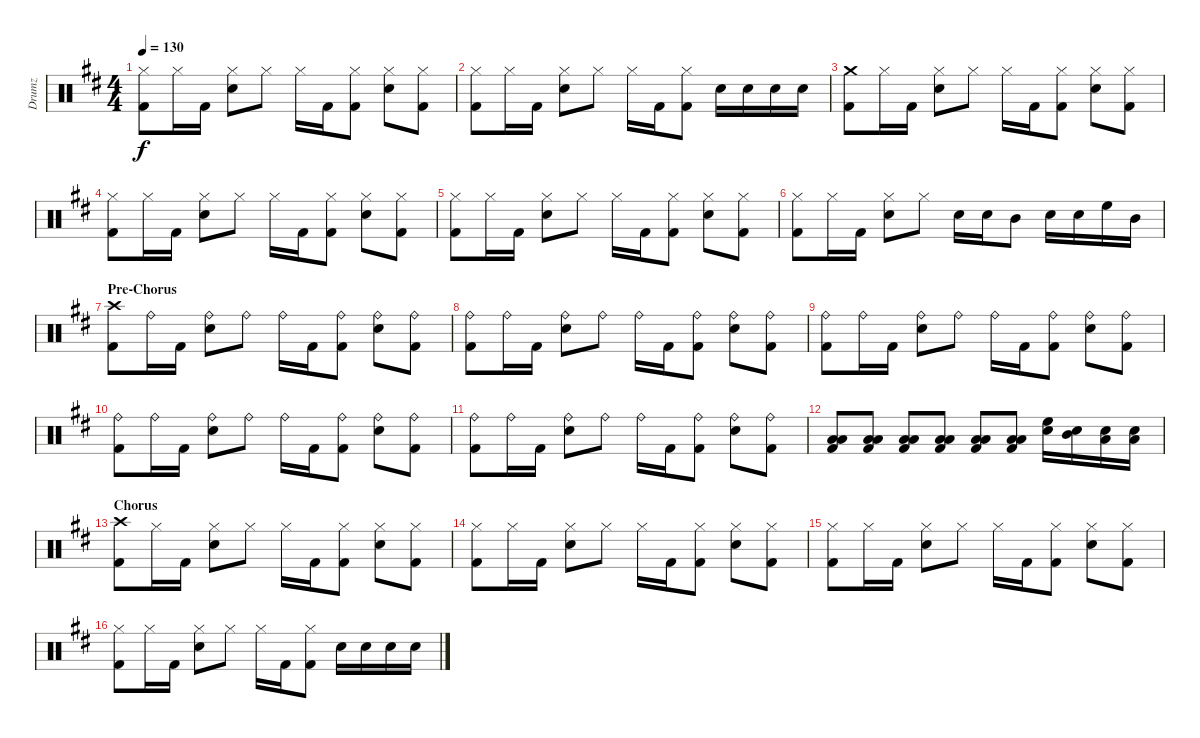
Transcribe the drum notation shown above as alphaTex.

\track ("Drumz" "Drumz") {instrument percussion}
\staff {score}
\articulation defaults
\ts (4 4)
\tempo 130
\clef neutral
\ks d
("Hi-Hat (closed)" "Kick (hit) 2").8{dy f} "Hi-Hat (closed)".16 "Kick (hit) 2".16 ("Hi-Hat (closed)" "Snare (hit) 2").8 "Hi-Hat (closed)".8 "Hi-Hat (closed)".16 "Kick (hit) 2".16 ("Hi-Hat (closed)" "Kick (hit) 2").8 ("Hi-Hat (closed)" "Snare (hit) 2").8 ("Hi-Hat (closed)" "Kick (hit) 2").8 |
("Hi-Hat (closed)" "Kick (hit) 2").8 "Hi-Hat (closed)".16 "Kick (hit) 2".16 ("Hi-Hat (closed)" "Snare (hit) 2").8 "Hi-Hat (closed)".8 "Hi-Hat (closed)".16 "Kick (hit) 2".16 ("Hi-Hat (closed)" "Kick (hit) 2").8 "Snare (hit) 2".16 "Snare (hit) 2".16 "Snare (hit) 2".16 "Snare (hit) 2".16 |
("Crash medium (hit)" "Kick (hit) 2").8 "Hi-Hat (closed)".16 "Kick (hit) 2".16 ("Hi-Hat (closed)" "Snare (hit) 2").8 "Hi-Hat (closed)".8 "Hi-Hat (closed)".16 "Kick (hit) 2".16 ("Hi-Hat (closed)" "Kick (hit) 2").8 ("Hi-Hat (closed)" "Snare (hit) 2").8 ("Hi-Hat (closed)" "Kick (hit) 2").8 |
("Hi-Hat (closed)" "Kick (hit) 2").8 "Hi-Hat (closed)".16 "Kick (hit) 2".16 ("Hi-Hat (closed)" "Snare (hit) 2").8 "Hi-Hat (closed)".8 "Hi-Hat (closed)".16 "Kick (hit) 2".16 ("Hi-Hat (closed)" "Kick (hit) 2").8 ("Hi-Hat (closed)" "Snare (hit) 2").8 ("Hi-Hat (closed)" "Kick (hit) 2").8 |
("Hi-Hat (closed)" "Kick (hit) 2").8 "Hi-Hat (closed)".16 "Kick (hit) 2".16 ("Hi-Hat (closed)" "Snare (hit) 2").8 "Hi-Hat (closed)".8 "Hi-Hat (closed)".16 "Kick (hit) 2".16 ("Hi-Hat (closed)" "Kick (hit) 2").8 ("Hi-Hat (closed)" "Snare (hit) 2").8 ("Hi-Hat (closed)" "Kick (hit) 2").8 |
("Hi-Hat (closed)" "Kick (hit) 2").8 "Hi-Hat (closed)".16 "Kick (hit) 2".16 ("Hi-Hat (closed)" "Snare (hit) 2").8 "Hi-Hat (closed)".8 "Snare (hit) 2".16 "Snare (hit) 2".16 "Mid Tom (hit)".8 "Snare (hit) 2".16 "Snare (hit) 2".16 "High Floor Tom (hit)".16 "Mid Tom (hit)".16 |
\section ("" "Pre-Chorus")
("Crash high (hit)" "Kick (hit) 2").8 "Ride (bell)".16 "Kick (hit) 2".16 ("Ride (bell)" "Snare (hit) 2").8 "Ride (bell)".8 "Ride (bell)".16 "Kick (hit) 2".16 ("Ride (bell)" "Kick (hit) 2").8 ("Ride (bell)" "Snare (hit) 2").8 ("Ride (bell)" "Kick (hit) 2").8 |
("Ride (bell)" "Kick (hit) 2").8 "Ride (bell)".16 "Kick (hit) 2".16 ("Ride (bell)" "Snare (hit) 2").8 "Ride (bell)".8 "Ride (bell)".16 "Kick (hit) 2".16 ("Ride (bell)" "Kick (hit) 2").8 ("Ride (bell)" "Snare (hit) 2").8 ("Ride (bell)" "Kick (hit) 2").8 |
("Ride (bell)" "Kick (hit) 2").8 "Ride (bell)".16 "Kick (hit) 2".16 ("Ride (bell)" "Snare (hit) 2").8 "Ride (bell)".8 "Ride (bell)".16 "Kick (hit) 2".16 ("Ride (bell)" "Kick (hit) 2").8 ("Ride (bell)" "Snare (hit) 2").8 ("Ride (bell)" "Kick (hit) 2").8 |
("Ride (bell)" "Kick (hit) 2").8 "Ride (bell)".16 "Kick (hit) 2".16 ("Ride (bell)" "Snare (hit) 2").8 "Ride (bell)".8 "Ride (bell)".16 "Kick (hit) 2".16 ("Ride (bell)" "Kick (hit) 2").8 ("Ride (bell)" "Snare (hit) 2").8 ("Ride (bell)" "Kick (hit) 2").8 |
("Ride (bell)" "Kick (hit) 2").8 "Ride (bell)".16 "Kick (hit) 2".16 ("Ride (bell)" "Snare (hit) 2").8 "Ride (bell)".8 "Ride (bell)".16 "Kick (hit) 2".16 ("Ride (bell)" "Kick (hit) 2").8 ("Ride (bell)" "Snare (hit) 2").8 ("Ride (bell)" "Kick (hit) 2").8 |
("Low Tom (hit)" "Low Floor Tom (hit)" "Kick (hit) 2").8 ("Low Tom (hit)" "Low Floor Tom (hit)" "Kick (hit) 2").8 ("Low Tom (hit)" "Low Floor Tom (hit)" "Kick (hit) 2").8 ("Low Tom (hit)" "Low Floor Tom (hit)" "Kick (hit) 2").8 ("Low Tom (hit)" "Low Floor Tom (hit)" "Kick (hit) 2").8 ("Low Tom (hit)" "Low Floor Tom (hit)" "Kick (hit) 2").8 ("Snare (hit) 2" "High Floor Tom (hit)").16 ("Snare (hit) 2" "Mid Tom (hit)").16 ("Snare (hit) 2" "Low Tom (hit)").16 ("Snare (hit) 2" "Low Floor Tom (hit)").16 |
\section ("" "Chorus")
("Crash high (hit)" "Kick (hit) 2").8 "Hi-Hat (closed)".16 "Kick (hit) 2".16 ("Hi-Hat (closed)" "Snare (hit) 2").8 "Hi-Hat (closed)".8 "Hi-Hat (closed)".16 "Kick (hit) 2".16 ("Hi-Hat (closed)" "Kick (hit) 2").8 ("Hi-Hat (closed)" "Snare (hit) 2").8 ("Hi-Hat (closed)" "Kick (hit) 2").8 |
("Hi-Hat (closed)" "Kick (hit) 2").8 "Hi-Hat (closed)".16 "Kick (hit) 2".16 ("Hi-Hat (closed)" "Snare (hit) 2").8 "Hi-Hat (closed)".8 "Hi-Hat (closed)".16 "Kick (hit) 2".16 ("Hi-Hat (closed)" "Kick (hit) 2").8 ("Hi-Hat (closed)" "Snare (hit) 2").8 ("Hi-Hat (closed)" "Kick (hit) 2").8 |
("Hi-Hat (closed)" "Kick (hit) 2").8 "Hi-Hat (closed)".16 "Kick (hit) 2".16 ("Hi-Hat (closed)" "Snare (hit) 2").8 "Hi-Hat (closed)".8 "Hi-Hat (closed)".16 "Kick (hit) 2".16 ("Hi-Hat (closed)" "Kick (hit) 2").8 ("Hi-Hat (closed)" "Snare (hit) 2").8 ("Hi-Hat (closed)" "Kick (hit) 2").8 |
("Hi-Hat (closed)" "Kick (hit) 2").8 "Hi-Hat (closed)".16 "Kick (hit) 2".16 ("Hi-Hat (closed)" "Snare (hit) 2").8 "Hi-Hat (closed)".8 "Hi-Hat (closed)".16 "Kick (hit) 2".16 ("Hi-Hat (closed)" "Kick (hit) 2").8 "Snare (hit) 2".16 "Snare (hit) 2".16 "Snare (hit) 2".16 "Snare (hit) 2".16
